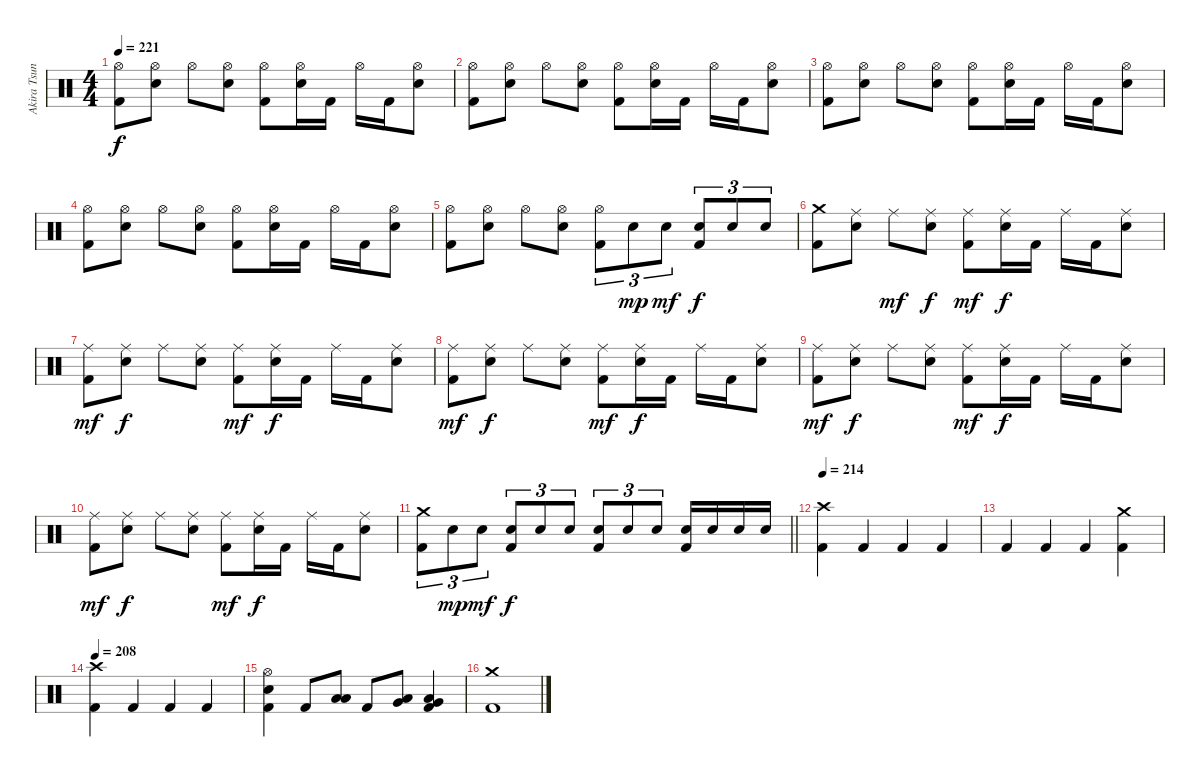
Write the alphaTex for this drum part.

\track ("Akira Tsuneoka" "Akira Tsun") {instrument percussion}
\staff {score}
\articulation defaults
\ts (4 4)
\tempo 221
\clef neutral
\ks c
("Hi-Hat (open)" "Kick (hit) 2").8{dy f} ("Hi-Hat (open)" "Electric Snare (hit)").8 "Hi-Hat (open)".8 ("Hi-Hat (open)" "Electric Snare (hit)").8 ("Hi-Hat (open)" "Kick (hit) 2").8 ("Hi-Hat (open)" "Electric Snare (hit)").16 "Kick (hit) 2".16 "Hi-Hat (open)".16 "Kick (hit) 2".16 ("Hi-Hat (open)" "Electric Snare (hit)").8 |
("Hi-Hat (open)" "Kick (hit) 2").8 ("Hi-Hat (open)" "Electric Snare (hit)").8 "Hi-Hat (open)".8 ("Hi-Hat (open)" "Electric Snare (hit)").8 ("Hi-Hat (open)" "Kick (hit) 2").8 ("Hi-Hat (open)" "Electric Snare (hit)").16 "Kick (hit) 2".16 "Hi-Hat (open)".16 "Kick (hit) 2".16 ("Hi-Hat (open)" "Electric Snare (hit)").8 |
("Hi-Hat (open)" "Kick (hit) 2").8 ("Hi-Hat (open)" "Electric Snare (hit)").8 "Hi-Hat (open)".8 ("Hi-Hat (open)" "Electric Snare (hit)").8 ("Hi-Hat (open)" "Kick (hit) 2").8 ("Hi-Hat (open)" "Electric Snare (hit)").16 "Kick (hit) 2".16 "Hi-Hat (open)".16 "Kick (hit) 2".16 ("Hi-Hat (open)" "Electric Snare (hit)").8 |
("Hi-Hat (open)" "Kick (hit) 2").8 ("Hi-Hat (open)" "Electric Snare (hit)").8 "Hi-Hat (open)".8 ("Hi-Hat (open)" "Electric Snare (hit)").8 ("Hi-Hat (open)" "Kick (hit) 2").8 ("Hi-Hat (open)" "Electric Snare (hit)").16 "Kick (hit) 2".16 "Hi-Hat (open)".16 "Kick (hit) 2".16 ("Hi-Hat (open)" "Electric Snare (hit)").8 |
("Hi-Hat (open)" "Kick (hit) 2").8 ("Hi-Hat (open)" "Electric Snare (hit)").8 "Hi-Hat (open)".8 ("Hi-Hat (open)" "Electric Snare (hit)").8 ("Hi-Hat (open)" "Kick (hit) 2").8{tu (3 2)} "Electric Snare (hit)".8{tu (3 2) dy mp} "Electric Snare (hit)".8{tu (3 2) dy mf} ("Electric Snare (hit)" "Kick (hit) 2").8{tu (3 2) dy f} "Electric Snare (hit)".8{tu (3 2)} "Electric Snare (hit)".8{tu (3 2)} |
("Crash medium (hit)" "Kick (hit) 2").8 ("Ride (middle)" "Electric Snare (hit)").8 "Ride (middle)".8{dy mf} ("Ride (middle)" "Electric Snare (hit)").8{dy f} ("Ride (middle)" "Kick (hit) 2").8{dy mf} ("Ride (middle)" "Electric Snare (hit)").16{dy f} "Kick (hit) 2".16 "Ride (middle)".16 "Kick (hit) 2".16 ("Ride (middle)" "Electric Snare (hit)").8 |
("Ride (middle)" "Kick (hit) 2").8{dy mf} ("Ride (middle)" "Electric Snare (hit)").8{dy f} "Ride (middle)".8 ("Ride (middle)" "Electric Snare (hit)").8 ("Ride (middle)" "Kick (hit) 2").8{dy mf} ("Ride (middle)" "Electric Snare (hit)").16{dy f} "Kick (hit) 2".16 "Ride (middle)".16 "Kick (hit) 2".16 ("Ride (middle)" "Electric Snare (hit)").8 |
("Ride (middle)" "Kick (hit) 2").8{dy mf} ("Ride (middle)" "Electric Snare (hit)").8{dy f} "Ride (middle)".8 ("Ride (middle)" "Electric Snare (hit)").8 ("Ride (middle)" "Kick (hit) 2").8{dy mf} ("Ride (middle)" "Electric Snare (hit)").16{dy f} "Kick (hit) 2".16 "Ride (middle)".16 "Kick (hit) 2".16 ("Ride (middle)" "Electric Snare (hit)").8 |
("Ride (middle)" "Kick (hit) 2").8{dy mf} ("Ride (middle)" "Electric Snare (hit)").8{dy f} "Ride (middle)".8 ("Ride (middle)" "Electric Snare (hit)").8 ("Ride (middle)" "Kick (hit) 2").8{dy mf} ("Ride (middle)" "Electric Snare (hit)").16{dy f} "Kick (hit) 2".16 "Ride (middle)".16 "Kick (hit) 2".16 ("Ride (middle)" "Electric Snare (hit)").8 |
("Ride (middle)" "Kick (hit) 2").8{dy mf} ("Ride (middle)" "Electric Snare (hit)").8{dy f} "Ride (middle)".8 ("Ride (middle)" "Electric Snare (hit)").8 ("Ride (middle)" "Kick (hit) 2").8{dy mf} ("Ride (middle)" "Electric Snare (hit)").16{dy f} "Kick (hit) 2".16 "Ride (middle)".16 "Kick (hit) 2".16 ("Ride (middle)" "Electric Snare (hit)").8 |
\barLineRight lightlight
("Crash medium (hit)" "Kick (hit) 2").8{tu (3 2)} "Electric Snare (hit)".8{tu (3 2) dy mp} "Electric Snare (hit)".8{tu (3 2) dy mf} ("Electric Snare (hit)" "Kick (hit) 2").8{tu (3 2) dy f} "Electric Snare (hit)".8{tu (3 2)} "Electric Snare (hit)".8{tu (3 2)} ("Electric Snare (hit)" "Kick (hit) 2").8{tu (3 2)} "Electric Snare (hit)".8{tu (3 2)} "Electric Snare (hit)".8{tu (3 2)} ("Electric Snare (hit)" "Kick (hit) 2").16 "Electric Snare (hit)".16 "Electric Snare (hit)".16 "Electric Snare (hit)".16 |
\section ("" "")
\tempo 214
("Crash high (hit)" "Kick (hit) 2").4 "Kick (hit) 2".4 "Kick (hit) 2".4 "Kick (hit) 2".4 |
"Kick (hit) 2".4 "Kick (hit) 2".4 "Kick (hit) 2".4 ("Crash medium (hit)" "Kick (hit) 2").4 |
\tempo 208
("Crash high (hit)" "Kick (hit) 2").4 "Kick (hit) 2".4 "Kick (hit) 2".4 "Kick (hit) 2".4 |
("Hi-Hat (open)" "Electric Snare (hit)" "Kick (hit) 2").4 "Kick (hit) 2".8 ("Low Tom (hit)" "Low Floor Tom (hit)").8 "Kick (hit) 2".8 ("Very Low Tom (hit)" "Low Floor Tom (hit)").8 ("Very Low Tom (hit)" "Low Floor Tom (hit)" "Kick (hit) 2").4 |
("Crash medium (hit)" "Kick (hit) 2").1
